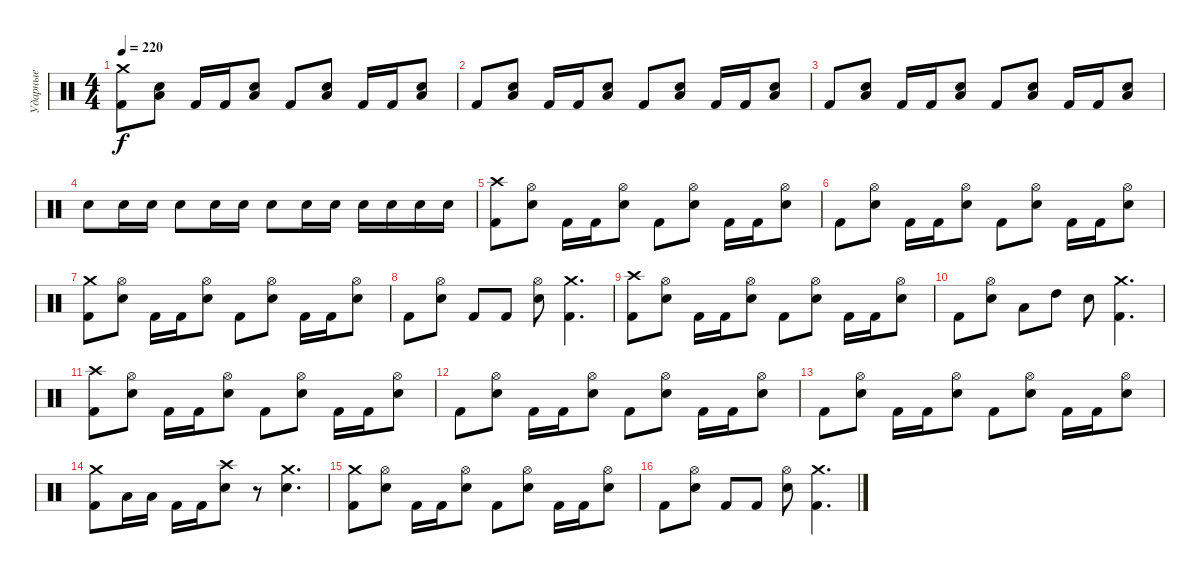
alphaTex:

\track ("Ударные" "Ударные") {instrument percussion}
\staff {score}
\articulation defaults
\ts (4 4)
\tempo 220
\clef neutral
\ks c
("Crash medium (hit)" "Kick (hit) 2").8{dy f} ("Low Floor Tom (hit)" "Electric Snare (hit)").8 "Kick (hit) 2".16 "Kick (hit) 2".16 ("Low Floor Tom (hit)" "Electric Snare (hit)").8 "Kick (hit) 2".8 ("Low Floor Tom (hit)" "Electric Snare (hit)").8 "Kick (hit) 2".16 "Kick (hit) 2".16 ("Low Floor Tom (hit)" "Electric Snare (hit)").8 |
"Kick (hit) 2".8 ("Low Floor Tom (hit)" "Electric Snare (hit)").8 "Kick (hit) 2".16 "Kick (hit) 2".16 ("Low Floor Tom (hit)" "Electric Snare (hit)").8 "Kick (hit) 2".8 ("Low Floor Tom (hit)" "Electric Snare (hit)").8 "Kick (hit) 2".16 "Kick (hit) 2".16 ("Low Floor Tom (hit)" "Electric Snare (hit)").8 |
"Kick (hit) 2".8 ("Low Floor Tom (hit)" "Electric Snare (hit)").8 "Kick (hit) 2".16 "Kick (hit) 2".16 ("Low Floor Tom (hit)" "Electric Snare (hit)").8 "Kick (hit) 2".8 ("Low Floor Tom (hit)" "Electric Snare (hit)").8 "Kick (hit) 2".16 "Kick (hit) 2".16 ("Low Floor Tom (hit)" "Electric Snare (hit)").8 |
"Electric Snare (hit)".8 "Electric Snare (hit)".16 "Electric Snare (hit)".16 "Electric Snare (hit)".8 "Electric Snare (hit)".16 "Electric Snare (hit)".16 "Electric Snare (hit)".8 "Electric Snare (hit)".16 "Electric Snare (hit)".16 "Electric Snare (hit)".16 "Electric Snare (hit)".16 "Electric Snare (hit)".16 "Electric Snare (hit)".16 |
("Crash high (hit)" "Kick (hit) 2").8 ("Hi-Hat (open)" "Electric Snare (hit)").8 "Kick (hit) 2".16 "Kick (hit) 2".16 ("Hi-Hat (open)" "Electric Snare (hit)").8 "Kick (hit) 2".8 ("Hi-Hat (open)" "Electric Snare (hit)").8 "Kick (hit) 2".16 "Kick (hit) 2".16 ("Hi-Hat (open)" "Electric Snare (hit)").8 |
"Kick (hit) 2".8 ("Hi-Hat (open)" "Electric Snare (hit)").8 "Kick (hit) 2".16 "Kick (hit) 2".16 ("Hi-Hat (open)" "Electric Snare (hit)").8 "Kick (hit) 2".8 ("Hi-Hat (open)" "Electric Snare (hit)").8 "Kick (hit) 2".16 "Kick (hit) 2".16 ("Hi-Hat (open)" "Electric Snare (hit)").8 |
("Crash medium (hit)" "Kick (hit) 2").8 ("Hi-Hat (open)" "Electric Snare (hit)").8 "Kick (hit) 2".16 "Kick (hit) 2".16 ("Hi-Hat (open)" "Electric Snare (hit)").8 "Kick (hit) 2".8 ("Hi-Hat (open)" "Electric Snare (hit)").8 "Kick (hit) 2".16 "Kick (hit) 2".16 ("Hi-Hat (open)" "Electric Snare (hit)").8 |
"Kick (hit) 2".8 ("Hi-Hat (open)" "Electric Snare (hit)").8 "Kick (hit) 2".8 "Kick (hit) 2".8 ("Hi-Hat (open)" "Electric Snare (hit)").8 ("Crash medium (hit)" "Kick (hit) 2").4{d} |
("Crash high (hit)" "Kick (hit) 2").8 ("Hi-Hat (open)" "Electric Snare (hit)").8 "Kick (hit) 2".16 "Kick (hit) 2".16 ("Hi-Hat (open)" "Electric Snare (hit)").8 "Kick (hit) 2".8 ("Hi-Hat (open)" "Electric Snare (hit)").8 "Kick (hit) 2".16 "Kick (hit) 2".16 ("Hi-Hat (open)" "Electric Snare (hit)").8 |
"Kick (hit) 2".8 ("Hi-Hat (open)" "Electric Snare (hit)").8 "Low Floor Tom (hit)".8 "High Tom (hit)".8 "Electric Snare (hit)".8 ("Crash medium (hit)" "Kick (hit) 2").4{d} |
("Crash high (hit)" "Kick (hit) 2").8 ("Hi-Hat (open)" "Electric Snare (hit)").8 "Kick (hit) 2".16 "Kick (hit) 2".16 ("Hi-Hat (open)" "Electric Snare (hit)").8 "Kick (hit) 2".8 ("Hi-Hat (open)" "Electric Snare (hit)").8 "Kick (hit) 2".16 "Kick (hit) 2".16 ("Hi-Hat (open)" "Electric Snare (hit)").8 |
"Kick (hit) 2".8 ("Hi-Hat (open)" "Electric Snare (hit)").8 "Kick (hit) 2".16 "Kick (hit) 2".16 ("Hi-Hat (open)" "Electric Snare (hit)").8 "Kick (hit) 2".8 ("Hi-Hat (open)" "Electric Snare (hit)").8 "Kick (hit) 2".16 "Kick (hit) 2".16 ("Hi-Hat (open)" "Electric Snare (hit)").8 |
"Kick (hit) 2".8 ("Hi-Hat (open)" "Electric Snare (hit)").8 "Kick (hit) 2".16 "Kick (hit) 2".16 ("Hi-Hat (open)" "Electric Snare (hit)").8 "Kick (hit) 2".8 ("Hi-Hat (open)" "Electric Snare (hit)").8 "Kick (hit) 2".16 "Kick (hit) 2".16 ("Hi-Hat (open)" "Electric Snare (hit)").8 |
("Crash medium (hit)" "Kick (hit) 2").8 "Low Floor Tom (hit)".16 "Low Floor Tom (hit)".16 "Kick (hit) 2".16 "Kick (hit) 2".16 ("Crash high (hit)" "Electric Snare (hit)").8 r.8 ("Crash medium (hit)" "Electric Snare (hit)").4{d} |
("Crash medium (hit)" "Kick (hit) 2").8 ("Hi-Hat (open)" "Electric Snare (hit)").8 "Kick (hit) 2".16 "Kick (hit) 2".16 ("Hi-Hat (open)" "Electric Snare (hit)").8 "Kick (hit) 2".8 ("Hi-Hat (open)" "Electric Snare (hit)").8 "Kick (hit) 2".16 "Kick (hit) 2".16 ("Hi-Hat (open)" "Electric Snare (hit)").8 |
"Kick (hit) 2".8 ("Hi-Hat (open)" "Electric Snare (hit)").8 "Kick (hit) 2".8 "Kick (hit) 2".8 ("Hi-Hat (open)" "Electric Snare (hit)").8 ("Crash medium (hit)" "Kick (hit) 2").4{d}
